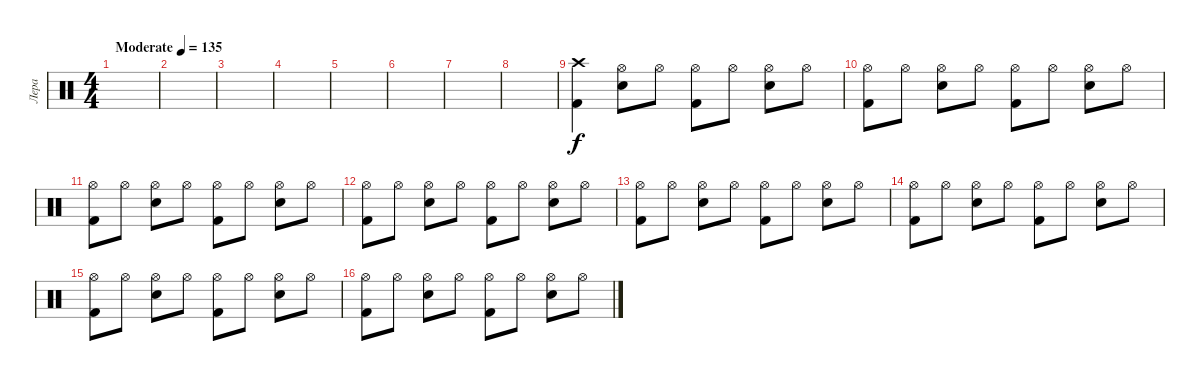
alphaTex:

\track ("Лера" "Лера") {instrument percussion}
\staff {score}
\articulation defaults
\ts (4 4)
\tempo (135 "Moderate")
\clef neutral
\ks c
|
|
|
|
|
|
|
|
("Crash high (hit)" "Kick (hit) 2").4 ("Hi-Hat (open)" "Electric Snare (hit)").8 "Hi-Hat (open)".8 ("Hi-Hat (open)" "Kick (hit) 2").8 "Hi-Hat (open)".8 ("Hi-Hat (open)" "Electric Snare (hit)").8 "Hi-Hat (open)".8 |
("Hi-Hat (open)" "Kick (hit) 2").8 "Hi-Hat (open)".8 ("Hi-Hat (open)" "Electric Snare (hit)").8 "Hi-Hat (open)".8 ("Hi-Hat (open)" "Kick (hit) 2").8 "Hi-Hat (open)".8 ("Hi-Hat (open)" "Electric Snare (hit)").8 "Hi-Hat (open)".8 |
("Hi-Hat (open)" "Kick (hit) 2").8 "Hi-Hat (open)".8 ("Hi-Hat (open)" "Electric Snare (hit)").8 "Hi-Hat (open)".8 ("Hi-Hat (open)" "Kick (hit) 2").8 "Hi-Hat (open)".8 ("Hi-Hat (open)" "Electric Snare (hit)").8 "Hi-Hat (open)".8 |
("Hi-Hat (open)" "Kick (hit) 2").8 "Hi-Hat (open)".8 ("Hi-Hat (open)" "Electric Snare (hit)").8 "Hi-Hat (open)".8 ("Hi-Hat (open)" "Kick (hit) 2").8 "Hi-Hat (open)".8 ("Hi-Hat (open)" "Electric Snare (hit)").8 "Hi-Hat (open)".8 |
("Hi-Hat (open)" "Kick (hit) 2").8 "Hi-Hat (open)".8 ("Hi-Hat (open)" "Electric Snare (hit)").8 "Hi-Hat (open)".8 ("Hi-Hat (open)" "Kick (hit) 2").8 "Hi-Hat (open)".8 ("Hi-Hat (open)" "Electric Snare (hit)").8 "Hi-Hat (open)".8 |
("Hi-Hat (open)" "Kick (hit) 2").8 "Hi-Hat (open)".8 ("Hi-Hat (open)" "Electric Snare (hit)").8 "Hi-Hat (open)".8 ("Hi-Hat (open)" "Kick (hit) 2").8 "Hi-Hat (open)".8 ("Hi-Hat (open)" "Electric Snare (hit)").8 "Hi-Hat (open)".8 |
("Hi-Hat (open)" "Kick (hit) 2").8 "Hi-Hat (open)".8 ("Hi-Hat (open)" "Electric Snare (hit)").8 "Hi-Hat (open)".8 ("Hi-Hat (open)" "Kick (hit) 2").8 "Hi-Hat (open)".8 ("Hi-Hat (open)" "Electric Snare (hit)").8 "Hi-Hat (open)".8 |
("Hi-Hat (open)" "Kick (hit) 2").8 "Hi-Hat (open)".8 ("Hi-Hat (open)" "Electric Snare (hit)").8 "Hi-Hat (open)".8 ("Hi-Hat (open)" "Kick (hit) 2").8 "Hi-Hat (open)".8 ("Hi-Hat (open)" "Electric Snare (hit)").8 "Hi-Hat (open)".8
